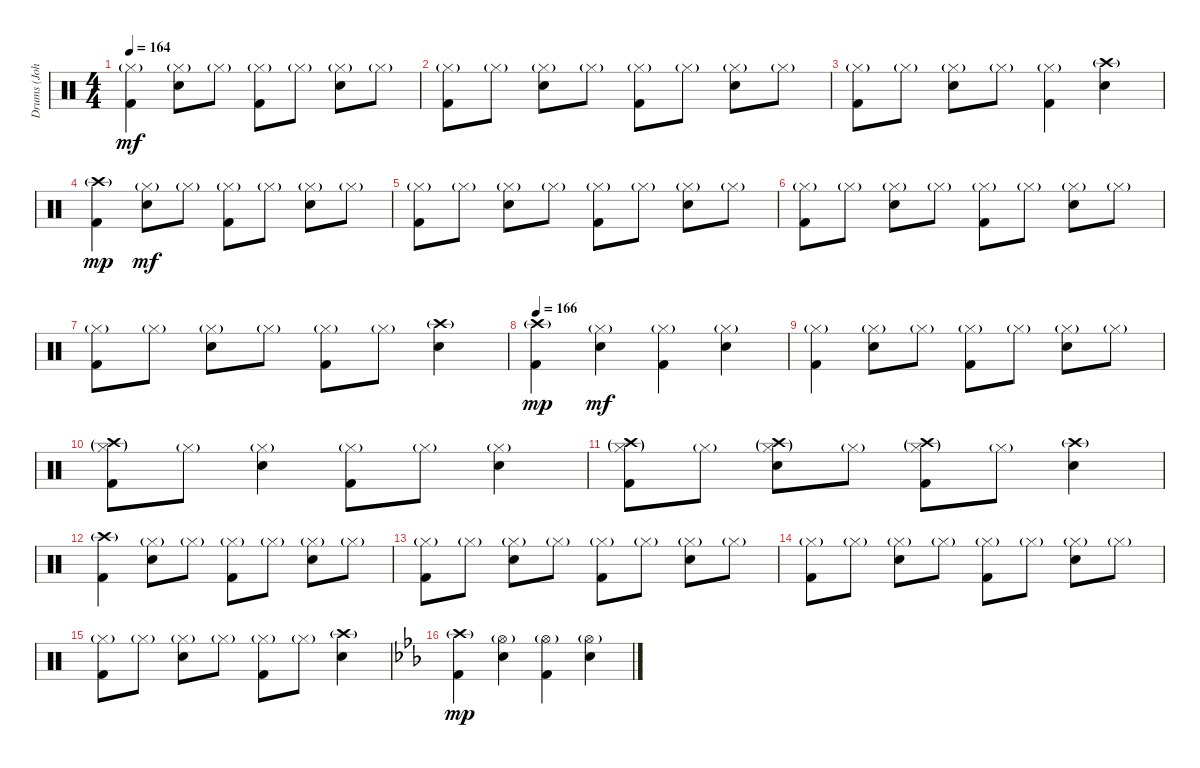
\track ("Drums (John O'Reilly)" "Drums (Joh") {instrument percussion}
\staff {score}
\articulation defaults
\ts (4 4)
\tempo 164
\clef neutral
\ks c
("Hi-Hat (closed)"{g} "Kick (hit) 2").4{dy mf} ("Hi-Hat (closed)"{g} "Electric Snare (hit)").8 "Hi-Hat (closed)"{g}.8 ("Hi-Hat (closed)"{g} "Kick (hit) 2").8 "Hi-Hat (closed)"{g}.8 ("Hi-Hat (closed)"{g} "Electric Snare (hit)").8 "Hi-Hat (closed)"{g}.8 |
("Hi-Hat (closed)"{g} "Kick (hit) 2").8 "Hi-Hat (closed)"{g}.8 ("Hi-Hat (closed)"{g} "Electric Snare (hit)").8 "Hi-Hat (closed)"{g}.8 ("Hi-Hat (closed)"{g} "Kick (hit) 2").8 "Hi-Hat (closed)"{g}.8 ("Hi-Hat (closed)"{g} "Electric Snare (hit)").8 "Hi-Hat (closed)"{g}.8 |
("Hi-Hat (closed)"{g} "Kick (hit) 2").8 "Hi-Hat (closed)"{g}.8 ("Hi-Hat (closed)"{g} "Electric Snare (hit)").8 "Hi-Hat (closed)"{g}.8 ("Hi-Hat (closed)"{g} "Kick (hit) 2").4 ("Crash high (hit)"{g} "Electric Snare (hit)").4 |
("Crash high (hit)"{g} "Kick (hit) 2").4{dy mp} ("Hi-Hat (closed)"{g} "Electric Snare (hit)").8{dy mf} "Hi-Hat (closed)"{g}.8 ("Hi-Hat (closed)"{g} "Kick (hit) 2").8 "Hi-Hat (closed)"{g}.8 ("Hi-Hat (closed)"{g} "Electric Snare (hit)").8 "Hi-Hat (closed)"{g}.8 |
("Hi-Hat (closed)"{g} "Kick (hit) 2").8 "Hi-Hat (closed)"{g}.8 ("Hi-Hat (closed)"{g} "Electric Snare (hit)").8 "Hi-Hat (closed)"{g}.8 ("Hi-Hat (closed)"{g} "Kick (hit) 2").8 "Hi-Hat (closed)"{g}.8 ("Hi-Hat (closed)"{g} "Electric Snare (hit)").8 "Hi-Hat (closed)"{g}.8 |
("Hi-Hat (closed)"{g} "Kick (hit) 2").8 "Hi-Hat (closed)"{g}.8 ("Hi-Hat (closed)"{g} "Electric Snare (hit)").8 "Hi-Hat (closed)"{g}.8 ("Hi-Hat (closed)"{g} "Kick (hit) 2").8 "Hi-Hat (closed)"{g}.8 ("Hi-Hat (closed)"{g} "Electric Snare (hit)").8 "Hi-Hat (closed)"{g}.8 |
("Hi-Hat (closed)"{g} "Kick (hit) 2").8 "Hi-Hat (closed)"{g}.8 ("Hi-Hat (closed)"{g} "Electric Snare (hit)").8 "Hi-Hat (closed)"{g}.8 ("Hi-Hat (closed)"{g} "Kick (hit) 2").8 "Hi-Hat (closed)"{g}.8 ("Crash high (hit)"{g} "Electric Snare (hit)").4 |
\tempo 166
("Crash high (hit)"{g} "Kick (hit) 2").4{dy mp} ("Hi-Hat (closed)"{g} "Electric Snare (hit)").4{dy mf} ("Hi-Hat (closed)"{g} "Kick (hit) 2").4 ("Hi-Hat (closed)"{g} "Electric Snare (hit)").4 |
("Hi-Hat (closed)"{g} "Kick (hit) 2").4 ("Hi-Hat (closed)"{g} "Electric Snare (hit)").8 "Hi-Hat (closed)"{g}.8 ("Hi-Hat (closed)"{g} "Kick (hit) 2").8 "Hi-Hat (closed)"{g}.8 ("Hi-Hat (closed)"{g} "Electric Snare (hit)").8 "Hi-Hat (closed)"{g}.8 |
("Crash high (hit)"{g} "Hi-Hat (closed)"{g} "Kick (hit) 2").8 "Hi-Hat (closed)"{g}.8 ("Hi-Hat (closed)"{g} "Electric Snare (hit)").4 ("Hi-Hat (closed)"{g} "Kick (hit) 2").8 "Hi-Hat (closed)"{g}.8 ("Hi-Hat (closed)"{g} "Electric Snare (hit)").4 |
("Crash high (hit)"{g} "Hi-Hat (closed)"{g} "Kick (hit) 2").8 "Hi-Hat (closed)"{g}.8 ("Crash high (hit)"{g} "Hi-Hat (closed)"{g} "Electric Snare (hit)").8 "Hi-Hat (closed)"{g}.8 ("Crash high (hit)"{g} "Hi-Hat (closed)"{g} "Kick (hit) 2").8 "Hi-Hat (closed)"{g}.8 ("Crash high (hit)"{g} "Electric Snare (hit)").4 |
("Crash high (hit)"{g} "Kick (hit) 2").4 ("Hi-Hat (closed)"{g} "Electric Snare (hit)").8 "Hi-Hat (closed)"{g}.8 ("Hi-Hat (closed)"{g} "Kick (hit) 2").8 "Hi-Hat (closed)"{g}.8 ("Hi-Hat (closed)"{g} "Electric Snare (hit)").8 "Hi-Hat (closed)"{g}.8 |
("Hi-Hat (closed)"{g} "Kick (hit) 2").8 "Hi-Hat (closed)"{g}.8 ("Hi-Hat (closed)"{g} "Electric Snare (hit)").8 "Hi-Hat (closed)"{g}.8 ("Hi-Hat (closed)"{g} "Kick (hit) 2").8 "Hi-Hat (closed)"{g}.8 ("Hi-Hat (closed)"{g} "Electric Snare (hit)").8 "Hi-Hat (closed)"{g}.8 |
("Hi-Hat (closed)"{g} "Kick (hit) 2").8 "Hi-Hat (closed)"{g}.8 ("Hi-Hat (closed)"{g} "Electric Snare (hit)").8 "Hi-Hat (closed)"{g}.8 ("Hi-Hat (closed)"{g} "Kick (hit) 2").8 "Hi-Hat (closed)"{g}.8 ("Hi-Hat (closed)"{g} "Electric Snare (hit)").8 "Hi-Hat (closed)"{g}.8 |
("Hi-Hat (closed)"{g} "Kick (hit) 2").8 "Hi-Hat (closed)"{g}.8 ("Hi-Hat (closed)"{g} "Electric Snare (hit)").8 "Hi-Hat (closed)"{g}.8 ("Hi-Hat (closed)"{g} "Kick (hit) 2").8 "Hi-Hat (closed)"{g}.8 ("Crash high (hit)"{g} "Electric Snare (hit)").4 |
\ks cminor
("Crash high (hit)"{g} "Kick (hit) 2").4{dy mp} ("Hi-Hat (open)"{g} "Electric Snare (hit)").4 ("Hi-Hat (open)"{g} "Kick (hit) 2").4 ("Hi-Hat (open)"{g} "Electric Snare (hit)").4
